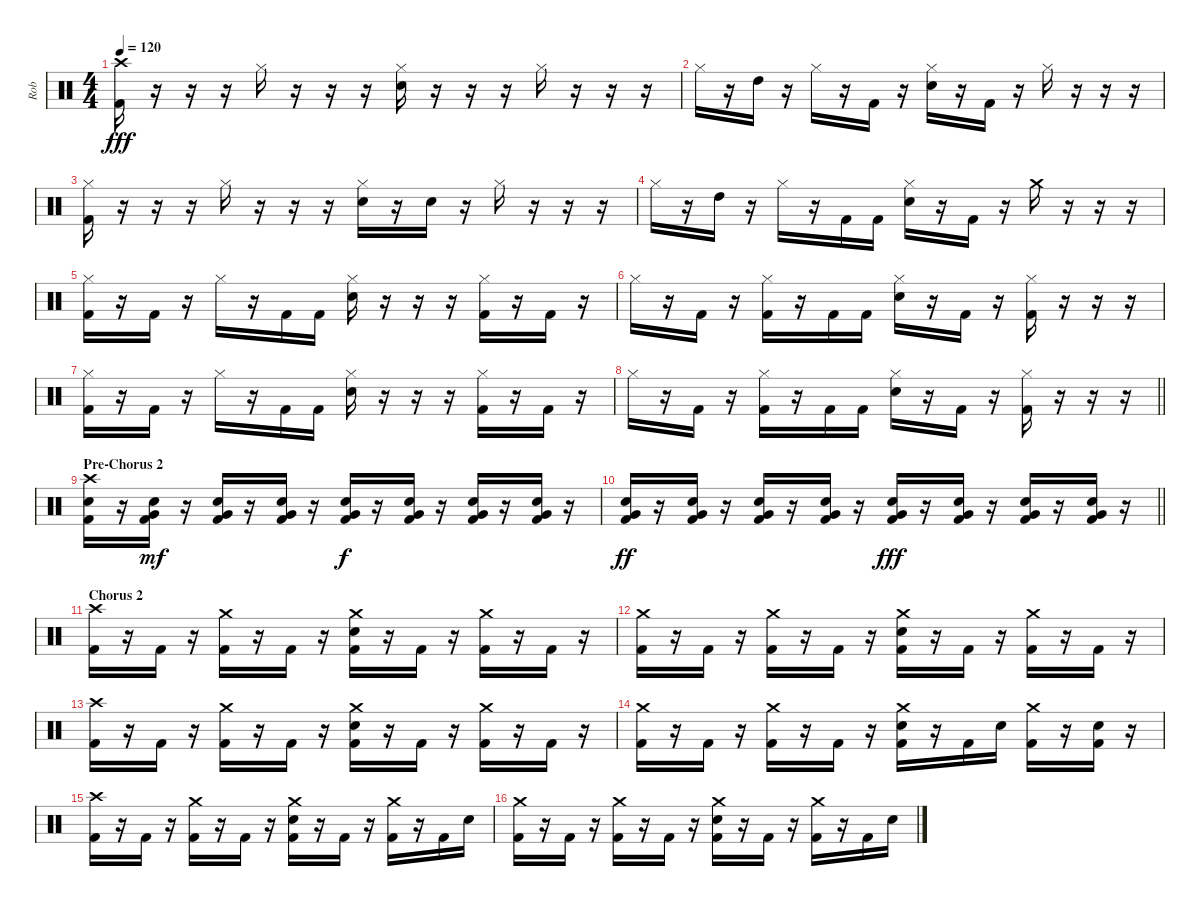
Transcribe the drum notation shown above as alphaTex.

\track ("Rob" "Rob") {instrument percussion}
\staff {score}
\articulation defaults
\ts (4 4)
\tempo 120
\clef neutral
\ks c
("Crash high (hit)" "Kick (hit) 2").16{dy fff} r.16 r.16 r.16 "Hi-Hat (closed)".16 r.16 r.16 r.16 ("Hi-Hat (closed)" "Electric Snare (hit)").16 r.16 r.16 r.16 "Hi-Hat (closed)".16 r.16 r.16 r.16 |
"Hi-Hat (closed)".16 r.16 "High Tom (hit)".16 r.16 "Hi-Hat (closed)".16 r.16 "Kick (hit) 2".16 r.16 ("Hi-Hat (closed)" "Electric Snare (hit)").16 r.16 "Kick (hit) 2".16 r.16 "Hi-Hat (closed)".16 r.16 r.16 r.16 |
("Hi-Hat (closed)" "Kick (hit) 2").16 r.16 r.16 r.16 "Hi-Hat (closed)".16 r.16 r.16 r.16 ("Hi-Hat (closed)" "Electric Snare (hit)").16 r.16 "Electric Snare (hit)".16 r.16 "Hi-Hat (closed)".16 r.16 r.16 r.16 |
"Hi-Hat (closed)".16 r.16 "High Tom (hit)".16 r.16 "Hi-Hat (closed)".16 r.16 "Kick (hit) 2".16 "Kick (hit) 2".16 ("Hi-Hat (closed)" "Electric Snare (hit)").16 r.16 "Kick (hit) 2".16 r.16 "Crash medium (hit)".16 r.16 r.16 r.16 |
("Hi-Hat (closed)" "Kick (hit) 2").16 r.16 "Kick (hit) 2".16 r.16 "Hi-Hat (closed)".16 r.16 "Kick (hit) 2".16 "Kick (hit) 2".16 ("Hi-Hat (closed)" "Electric Snare (hit)").16 r.16 r.16 r.16 ("Hi-Hat (closed)" "Kick (hit) 2").16 r.16 "Kick (hit) 2".16 r.16 |
"Hi-Hat (closed)".16 r.16 "Kick (hit) 2".16 r.16 ("Hi-Hat (closed)" "Kick (hit) 2").16 r.16 "Kick (hit) 2".16 "Kick (hit) 2".16 ("Hi-Hat (closed)" "Electric Snare (hit)").16 r.16 "Kick (hit) 2".16 r.16 ("Hi-Hat (closed)" "Kick (hit) 2").16 r.16 r.16 r.16 |
("Hi-Hat (closed)" "Kick (hit) 2").16 r.16 "Kick (hit) 2".16 r.16 "Hi-Hat (closed)".16 r.16 "Kick (hit) 2".16 "Kick (hit) 2".16 ("Hi-Hat (closed)" "Electric Snare (hit)").16 r.16 r.16 r.16 ("Hi-Hat (closed)" "Kick (hit) 2").16 r.16 "Kick (hit) 2".16 r.16 |
\barLineRight lightlight "Hi-Hat (closed)".16
r.16 "Kick (hit) 2".16 r.16 ("Hi-Hat (closed)" "Kick (hit) 2").16 r.16 "Kick (hit) 2".16 "Kick (hit) 2".16 ("Hi-Hat (closed)" "Electric Snare (hit)").16 r.16 "Kick (hit) 2".16 r.16 ("Hi-Hat (closed)" "Kick (hit) 2").16 r.16 r.16 r.16 |
\section ("" "Pre-Chorus 2")
("Crash high (hit)" "Electric Snare (hit)" "Kick (hit) 2").16 r.16 ("Electric Snare (hit)" "Very Low Tom (hit)" "Kick (hit) 2").16{dy mf} r.16 ("Electric Snare (hit)" "Very Low Tom (hit)" "Kick (hit) 2").16 r.16 ("Electric Snare (hit)" "Very Low Tom (hit)" "Kick (hit) 2").16 r.16 ("Electric Snare (hit)" "Very Low Tom (hit)" "Kick (hit) 2").16{dy f} r.16 ("Electric Snare (hit)" "Very Low Tom (hit)" "Kick (hit) 2").16 r.16 ("Electric Snare (hit)" "Very Low Tom (hit)" "Kick (hit) 2").16 r.16 ("Electric Snare (hit)" "Very Low Tom (hit)" "Kick (hit) 2").16 r.16 |
\barLineRight lightlight
("Electric Snare (hit)" "Very Low Tom (hit)" "Kick (hit) 2").16{dy ff} r.16 ("Electric Snare (hit)" "Very Low Tom (hit)" "Kick (hit) 2").16 r.16 ("Electric Snare (hit)" "Very Low Tom (hit)" "Kick (hit) 2").16 r.16 ("Electric Snare (hit)" "Very Low Tom (hit)" "Kick (hit) 2").16 r.16 ("Electric Snare (hit)" "Very Low Tom (hit)" "Kick (hit) 2").16{dy fff} r.16 ("Electric Snare (hit)" "Very Low Tom (hit)" "Kick (hit) 2").16 r.16 ("Electric Snare (hit)" "Very Low Tom (hit)" "Kick (hit) 2").16 r.16 ("Electric Snare (hit)" "Very Low Tom (hit)" "Kick (hit) 2").16 r.16 |
\section ("" "Chorus 2")
("Crash high (hit)" "Kick (hit) 2").16 r.16 "Kick (hit) 2".16 r.16 ("Crash medium (hit)" "Kick (hit) 2").16 r.16 "Kick (hit) 2".16 r.16 ("Crash medium (hit)" "Electric Snare (hit)" "Kick (hit) 2").16 r.16 "Kick (hit) 2".16 r.16 ("Crash medium (hit)" "Kick (hit) 2").16 r.16 "Kick (hit) 2".16 r.16 |
("Crash medium (hit)" "Kick (hit) 2").16 r.16 "Kick (hit) 2".16 r.16 ("Crash medium (hit)" "Kick (hit) 2").16 r.16 "Kick (hit) 2".16 r.16 ("Crash medium (hit)" "Electric Snare (hit)" "Kick (hit) 2").16 r.16 "Kick (hit) 2".16 r.16 ("Crash medium (hit)" "Kick (hit) 2").16 r.16 "Kick (hit) 2".16 r.16 |
("Crash high (hit)" "Kick (hit) 2").16 r.16 "Kick (hit) 2".16 r.16 ("Crash medium (hit)" "Kick (hit) 2").16 r.16 "Kick (hit) 2".16 r.16 ("Crash medium (hit)" "Electric Snare (hit)" "Kick (hit) 2").16 r.16 "Kick (hit) 2".16 r.16 ("Crash medium (hit)" "Kick (hit) 2").16 r.16 "Kick (hit) 2".16 r.16 |
("Crash medium (hit)" "Kick (hit) 2").16 r.16 "Kick (hit) 2".16 r.16 ("Crash medium (hit)" "Kick (hit) 2").16 r.16 "Kick (hit) 2".16 r.16 ("Crash medium (hit)" "Electric Snare (hit)" "Kick (hit) 2").16 r.16 "Kick (hit) 2".16 "Electric Snare (hit)".16 ("Crash medium (hit)" "Kick (hit) 2").16 r.16 ("Electric Snare (hit)" "Kick (hit) 2").16 r.16 |
("Crash high (hit)" "Kick (hit) 2").16 r.16 "Kick (hit) 2".16 r.16 ("Crash medium (hit)" "Kick (hit) 2").16 r.16 "Kick (hit) 2".16 r.16 ("Crash medium (hit)" "Electric Snare (hit)" "Kick (hit) 2").16 r.16 "Kick (hit) 2".16 r.16 ("Crash medium (hit)" "Kick (hit) 2").16 r.16 "Kick (hit) 2".16 "Electric Snare (hit)".16 |
("Crash medium (hit)" "Kick (hit) 2").16 r.16 "Kick (hit) 2".16 r.16 ("Crash medium (hit)" "Kick (hit) 2").16 r.16 "Kick (hit) 2".16 r.16 ("Crash medium (hit)" "Electric Snare (hit)" "Kick (hit) 2").16 r.16 "Kick (hit) 2".16 r.16 ("Crash medium (hit)" "Kick (hit) 2").16 r.16 "Kick (hit) 2".16 "Electric Snare (hit)".16
